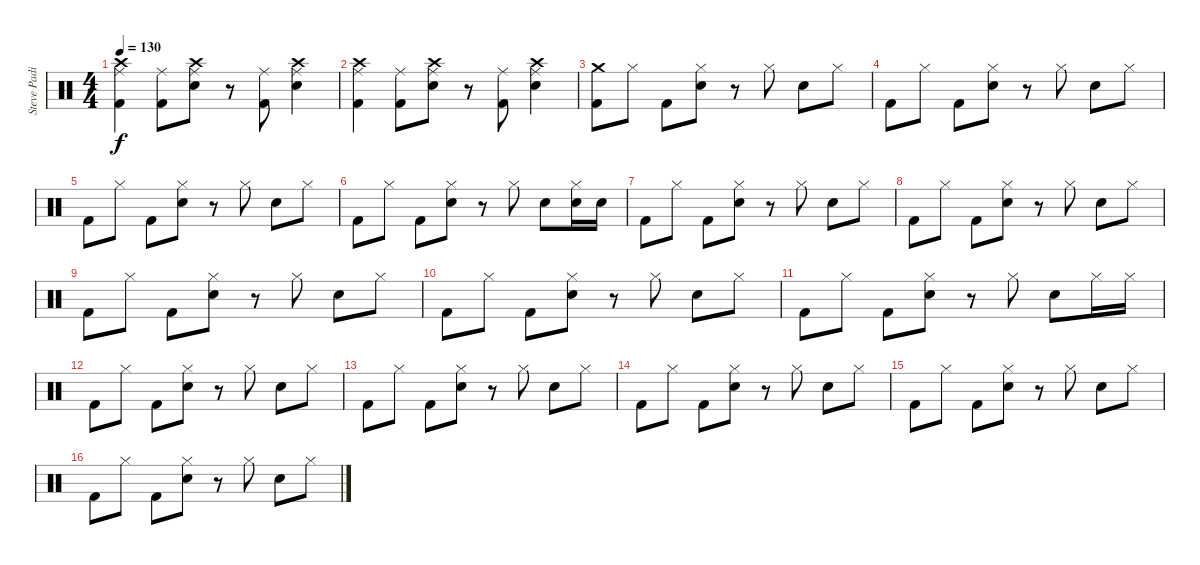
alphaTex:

\track ("Steve Padin" "Steve Padi") {instrument percussion}
\staff {score}
\articulation defaults
\ts (4 4)
\tempo 130
\clef neutral
\ks c
("Crash high (hit)" "Ride (middle)" "Kick (hit) 2").4{dy f} ("Ride (middle)" "Kick (hit) 2").8 ("Crash high (hit)" "Ride (middle)" "Electric Snare (hit)").8 r.8 ("Ride (middle)" "Kick (hit) 2").8 ("Crash high (hit)" "Ride (middle)" "Electric Snare (hit)").4 |
("Crash high (hit)" "Ride (middle)" "Kick (hit) 2").4 ("Ride (middle)" "Kick (hit) 2").8 ("Crash high (hit)" "Ride (middle)" "Electric Snare (hit)").8 r.8 ("Ride (middle)" "Kick (hit) 2").8 ("Crash high (hit)" "Ride (middle)" "Electric Snare (hit)").4 |
("Crash medium (hit)" "Kick (hit) 2").8 "Hi-Hat (closed)".8 "Kick (hit) 2".8 ("Hi-Hat (closed)" "Electric Snare (hit)").8 r.8 "Hi-Hat (closed)".8 "Electric Snare (hit)".8 "Hi-Hat (closed)".8 |
"Kick (hit) 2".8 "Hi-Hat (closed)".8 "Kick (hit) 2".8 ("Hi-Hat (closed)" "Electric Snare (hit)").8 r.8 "Hi-Hat (closed)".8 "Electric Snare (hit)".8 "Hi-Hat (closed)".8 |
"Kick (hit) 2".8 "Hi-Hat (closed)".8 "Kick (hit) 2".8 ("Hi-Hat (closed)" "Electric Snare (hit)").8 r.8 "Hi-Hat (closed)".8 "Electric Snare (hit)".8 "Hi-Hat (closed)".8 |
"Kick (hit) 2".8 "Hi-Hat (closed)".8 "Kick (hit) 2".8 ("Hi-Hat (closed)" "Electric Snare (hit)").8 r.8 "Hi-Hat (closed)".8 "Electric Snare (hit)".8 ("Hi-Hat (closed)" "Electric Snare (hit)").16 "Electric Snare (hit)".16 |
"Kick (hit) 2".8 "Hi-Hat (closed)".8 "Kick (hit) 2".8 ("Hi-Hat (closed)" "Electric Snare (hit)").8 r.8 "Hi-Hat (closed)".8 "Electric Snare (hit)".8 "Hi-Hat (closed)".8 |
"Kick (hit) 2".8 "Hi-Hat (closed)".8 "Kick (hit) 2".8 ("Hi-Hat (closed)" "Electric Snare (hit)").8 r.8 "Hi-Hat (closed)".8 "Electric Snare (hit)".8 "Hi-Hat (closed)".8 |
"Kick (hit) 2".8 "Hi-Hat (closed)".8 "Kick (hit) 2".8 ("Hi-Hat (closed)" "Electric Snare (hit)").8 r.8 "Hi-Hat (closed)".8 "Electric Snare (hit)".8 "Hi-Hat (closed)".8 |
"Kick (hit) 2".8 "Hi-Hat (closed)".8 "Kick (hit) 2".8 ("Hi-Hat (closed)" "Electric Snare (hit)").8 r.8 "Hi-Hat (closed)".8 "Electric Snare (hit)".8 "Hi-Hat (closed)".8 |
"Kick (hit) 2".8 "Hi-Hat (closed)".8 "Kick (hit) 2".8 ("Hi-Hat (closed)" "Electric Snare (hit)").8 r.8 "Hi-Hat (closed)".8 "Electric Snare (hit)".8 "Hi-Hat (closed)".16 "Hi-Hat (closed)".16 |
"Kick (hit) 2".8 "Hi-Hat (closed)".8 "Kick (hit) 2".8 ("Hi-Hat (closed)" "Electric Snare (hit)").8 r.8 "Hi-Hat (closed)".8 "Electric Snare (hit)".8 "Hi-Hat (closed)".8 |
"Kick (hit) 2".8 "Hi-Hat (closed)".8 "Kick (hit) 2".8 ("Hi-Hat (closed)" "Electric Snare (hit)").8 r.8 "Hi-Hat (closed)".8 "Electric Snare (hit)".8 "Hi-Hat (closed)".8 |
"Kick (hit) 2".8 "Hi-Hat (closed)".8 "Kick (hit) 2".8 ("Hi-Hat (closed)" "Electric Snare (hit)").8 r.8 "Hi-Hat (closed)".8 "Electric Snare (hit)".8 "Hi-Hat (closed)".8 |
"Kick (hit) 2".8 "Hi-Hat (closed)".8 "Kick (hit) 2".8 ("Hi-Hat (closed)" "Electric Snare (hit)").8 r.8 "Hi-Hat (closed)".8 "Electric Snare (hit)".8 "Hi-Hat (closed)".8 |
"Kick (hit) 2".8 "Hi-Hat (closed)".8 "Kick (hit) 2".8 ("Hi-Hat (closed)" "Electric Snare (hit)").8 r.8 "Hi-Hat (closed)".8 "Electric Snare (hit)".8 "Hi-Hat (closed)".8
